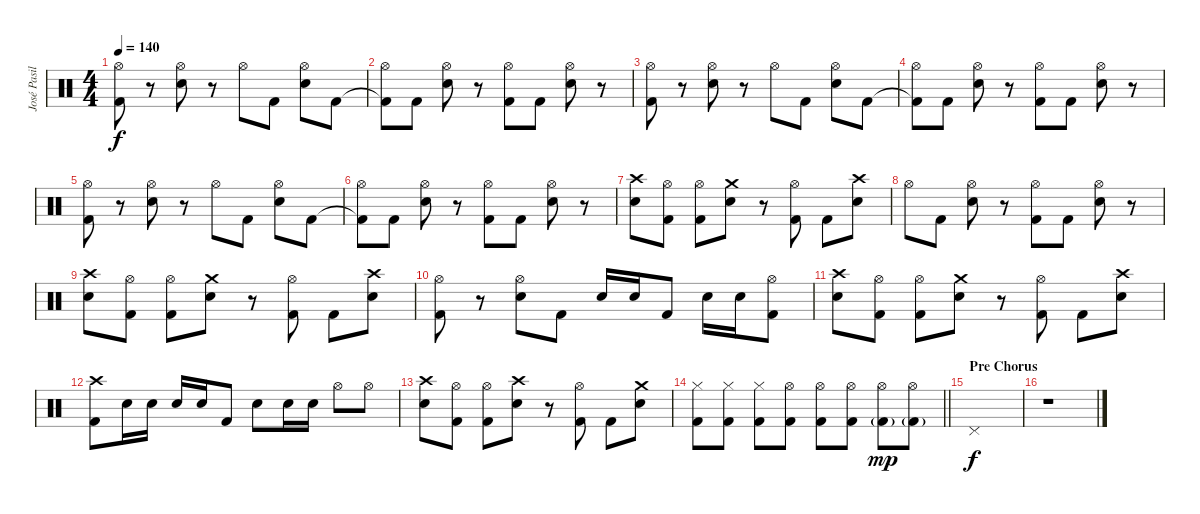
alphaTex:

\track ("José Pasillas [Drums]" "José Pasil") {instrument percussion}
\staff {score}
\articulation defaults
\ts (4 4)
\tempo 140
\clef neutral
\ks c
("Kick (hit) 2" "Hi-Hat (open)").8{dy f} r.8 ("Electric Snare (hit)" "Hi-Hat (open)").8 r.8 "Hi-Hat (open)".8 "Kick (hit) 2".8 ("Electric Snare (hit)" "Hi-Hat (open)").8 "Kick (hit) 2".8 |
("Kick (hit) 2"{t} "Hi-Hat (open)").8 "Kick (hit) 2".8 ("Electric Snare (hit)" "Hi-Hat (open)").8 r.8 ("Kick (hit) 2" "Hi-Hat (open)").8 "Kick (hit) 2".8 ("Electric Snare (hit)" "Hi-Hat (open)").8 r.8 |
("Kick (hit) 2" "Hi-Hat (open)").8 r.8 ("Electric Snare (hit)" "Hi-Hat (open)").8 r.8 "Hi-Hat (open)".8 "Kick (hit) 2".8 ("Electric Snare (hit)" "Hi-Hat (open)").8 "Kick (hit) 2".8 |
("Kick (hit) 2"{t} "Hi-Hat (open)").8 "Kick (hit) 2".8 ("Electric Snare (hit)" "Hi-Hat (open)").8 r.8 ("Kick (hit) 2" "Hi-Hat (open)").8 "Kick (hit) 2".8 ("Electric Snare (hit)" "Hi-Hat (open)").8 r.8 |
("Kick (hit) 2" "Hi-Hat (open)").8 r.8 ("Electric Snare (hit)" "Hi-Hat (open)").8 r.8 "Hi-Hat (open)".8 "Kick (hit) 2".8 ("Electric Snare (hit)" "Hi-Hat (open)").8 "Kick (hit) 2".8 |
("Kick (hit) 2"{t} "Hi-Hat (open)").8 "Kick (hit) 2".8 ("Electric Snare (hit)" "Hi-Hat (open)").8 r.8 ("Kick (hit) 2" "Hi-Hat (open)").8 "Kick (hit) 2".8 ("Electric Snare (hit)" "Hi-Hat (open)").8 r.8 |
("Electric Snare (hit)" "Crash high (hit)").8 ("Kick (hit) 2" "Hi-Hat (open)").8 ("Kick (hit) 2" "Hi-Hat (open)").8 ("Electric Snare (hit)" "Crash medium (hit)").8 r.8 ("Kick (hit) 2" "Hi-Hat (open)").8 "Kick (hit) 2".8 ("Electric Snare (hit)" "Crash high (hit)").8 |
"Hi-Hat (open)".8 "Kick (hit) 2".8 ("Electric Snare (hit)" "Hi-Hat (open)").8 r.8 ("Kick (hit) 2" "Hi-Hat (open)").8 "Kick (hit) 2".8 ("Electric Snare (hit)" "Hi-Hat (open)").8 r.8 |
("Electric Snare (hit)" "Crash high (hit)").8 ("Kick (hit) 2" "Hi-Hat (open)").8 ("Kick (hit) 2" "Hi-Hat (open)").8 ("Electric Snare (hit)" "Crash medium (hit)").8 r.8 ("Kick (hit) 2" "Hi-Hat (open)").8 "Kick (hit) 2".8 ("Electric Snare (hit)" "Crash high (hit)").8 |
("Kick (hit) 2" "Hi-Hat (open)").8 r.8 ("Electric Snare (hit)" "Hi-Hat (open)").8 "Kick (hit) 2".8 "Electric Snare (hit)".16 "Electric Snare (hit)".16 "Kick (hit) 2".8 "Electric Snare (hit)".16 "Electric Snare (hit)".16 ("Kick (hit) 2" "Hi-Hat (open)").8 |
("Electric Snare (hit)" "Crash high (hit)").8 ("Kick (hit) 2" "Hi-Hat (open)").8 ("Kick (hit) 2" "Hi-Hat (open)").8 ("Electric Snare (hit)" "Crash medium (hit)").8 r.8 ("Kick (hit) 2" "Hi-Hat (open)").8 "Kick (hit) 2".8 ("Electric Snare (hit)" "Crash high (hit)").8 |
("Kick (hit) 2" "Crash high (hit)").8 "Electric Snare (hit)".16 "Electric Snare (hit)".16 "Electric Snare (hit)".16 "Electric Snare (hit)".16 "Kick (hit) 2".8 "Electric Snare (hit)".8 "Electric Snare (hit)".16 "Electric Snare (hit)".16 "Hi-Hat (open)".8 "Hi-Hat (open)".8 |
("Electric Snare (hit)" "Crash high (hit)").8 ("Kick (hit) 2" "Hi-Hat (open)").8 ("Kick (hit) 2" "Hi-Hat (open)").8 ("Electric Snare (hit)" "Crash high (hit)").8 r.8 ("Kick (hit) 2" "Hi-Hat (open)").8 "Kick (hit) 2".8 ("Electric Snare (hit)" "Crash medium (hit)").8 |
\barLineRight lightlight
("Kick (hit) 2" "Hi-Hat (closed)").8 ("Kick (hit) 2" "Hi-Hat (closed)").8 ("Kick (hit) 2" "Hi-Hat (closed)").8 ("Kick (hit) 2" "Hi-Hat (open)").8 ("Kick (hit) 2" "Hi-Hat (open)").8 ("Kick (hit) 2" "Hi-Hat (open)").8 ("Kick (hit) 2"{g} "Hi-Hat (open)").8{dy mp} ("Kick (hit) 2"{g} "Hi-Hat (open)").8 |
\section ("" "Pre Chorus")
"Pedal Hi-Hat (hit)".1{dy f} |
r.1
